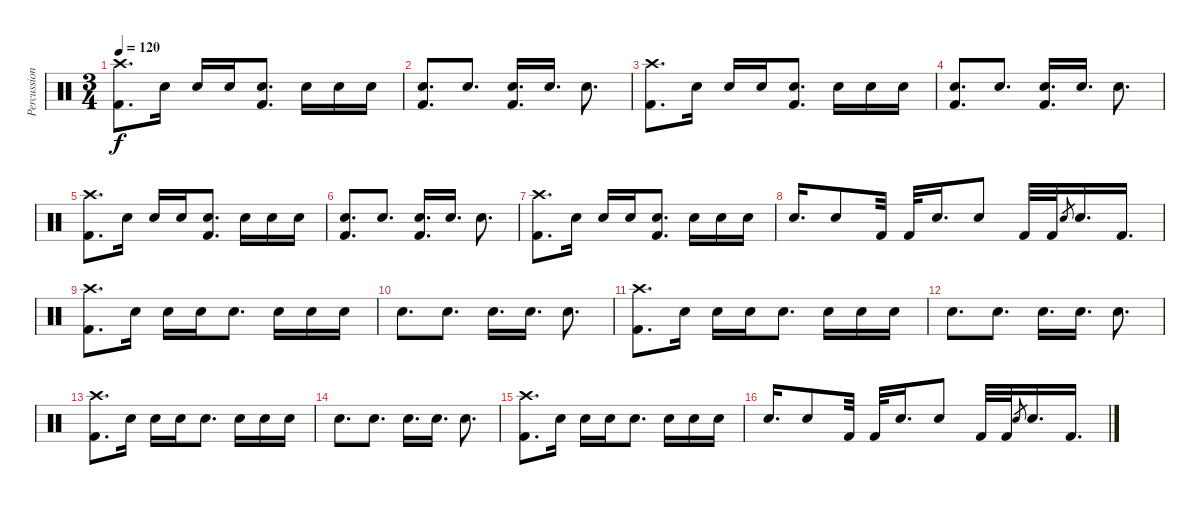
\track ("Percussion" "Percussion") {solo instrument percussion}
\staff {score}
\articulation defaults
\ts (3 4)
\tempo 120
\clef neutral
\ks c
("Crash high (hit)" "Kick (hit) 2").8{d dy f} "Snare (hit) 2".16 "Snare (hit) 2".16 "Snare (hit) 2".16 ("Snare (hit) 2" "Kick (hit) 2").8{d} "Snare (hit) 2".16 "Snare (hit) 2".16 "Snare (hit) 2".16 |
("Snare (hit) 2" "Kick (hit) 2").8{d} "Snare (hit) 2".8{d} ("Snare (hit) 2" "Kick (hit) 2").16{d} "Snare (hit) 2".16{d} "Snare (hit) 2".8{d} |
("Crash high (hit)" "Kick (hit) 2").8{d} "Snare (hit) 2".16 "Snare (hit) 2".16 "Snare (hit) 2".16 ("Snare (hit) 2" "Kick (hit) 2").8{d} "Snare (hit) 2".16 "Snare (hit) 2".16 "Snare (hit) 2".16 |
("Snare (hit) 2" "Kick (hit) 2").8{d} "Snare (hit) 2".8{d} ("Snare (hit) 2" "Kick (hit) 2").16{d} "Snare (hit) 2".16{d} "Snare (hit) 2".8{d} |
("Crash high (hit)" "Kick (hit) 2").8{d} "Snare (hit) 2".16 "Snare (hit) 2".16 "Snare (hit) 2".16 ("Snare (hit) 2" "Kick (hit) 2").8{d} "Snare (hit) 2".16 "Snare (hit) 2".16 "Snare (hit) 2".16 |
("Snare (hit) 2" "Kick (hit) 2").8{d} "Snare (hit) 2".8{d} ("Snare (hit) 2" "Kick (hit) 2").16{d} "Snare (hit) 2".16{d} "Snare (hit) 2".8{d} |
("Crash high (hit)" "Kick (hit) 2").8{d} "Snare (hit) 2".16 "Snare (hit) 2".16 "Snare (hit) 2".16 ("Snare (hit) 2" "Kick (hit) 2").8{d} "Snare (hit) 2".16 "Snare (hit) 2".16 "Snare (hit) 2".16 |
"Snare (hit) 2".16{d} "Snare (hit) 2".8 "Kick (hit) 2".32 "Kick (hit) 2".32 "Snare (hit) 2".16{d} "Snare (hit) 2".8 "Kick (hit) 2".32 "Kick (hit) 2".32 "Snare (hit) 2".8{gr} "Snare (hit) 2".16{d} "Kick (hit) 2".16{d} |
("Crash high (hit)" "Kick (hit) 2").8{d} "Snare (hit) 2".16 "Snare (hit) 2".16 "Snare (hit) 2".16 "Snare (hit) 2".8{d} "Snare (hit) 2".16 "Snare (hit) 2".16 "Snare (hit) 2".16 |
"Snare (hit) 2".8{d} "Snare (hit) 2".8{d} "Snare (hit) 2".16{d} "Snare (hit) 2".16{d} "Snare (hit) 2".8{d} |
("Crash high (hit)" "Kick (hit) 2").8{d} "Snare (hit) 2".16 "Snare (hit) 2".16 "Snare (hit) 2".16 "Snare (hit) 2".8{d} "Snare (hit) 2".16 "Snare (hit) 2".16 "Snare (hit) 2".16 |
"Snare (hit) 2".8{d} "Snare (hit) 2".8{d} "Snare (hit) 2".16{d} "Snare (hit) 2".16{d} "Snare (hit) 2".8{d} |
("Crash high (hit)" "Kick (hit) 2").8{d} "Snare (hit) 2".16 "Snare (hit) 2".16 "Snare (hit) 2".16 "Snare (hit) 2".8{d} "Snare (hit) 2".16 "Snare (hit) 2".16 "Snare (hit) 2".16 |
"Snare (hit) 2".8{d} "Snare (hit) 2".8{d} "Snare (hit) 2".16{d} "Snare (hit) 2".16{d} "Snare (hit) 2".8{d} |
("Crash high (hit)" "Kick (hit) 2").8{d} "Snare (hit) 2".16 "Snare (hit) 2".16 "Snare (hit) 2".16 "Snare (hit) 2".8{d} "Snare (hit) 2".16 "Snare (hit) 2".16 "Snare (hit) 2".16 |
"Snare (hit) 2".16{d} "Snare (hit) 2".8 "Kick (hit) 2".32 "Kick (hit) 2".32 "Snare (hit) 2".16{d} "Snare (hit) 2".8 "Kick (hit) 2".32 "Kick (hit) 2".32 "Snare (hit) 2".8{gr} "Snare (hit) 2".16{d} "Kick (hit) 2".16{d}
